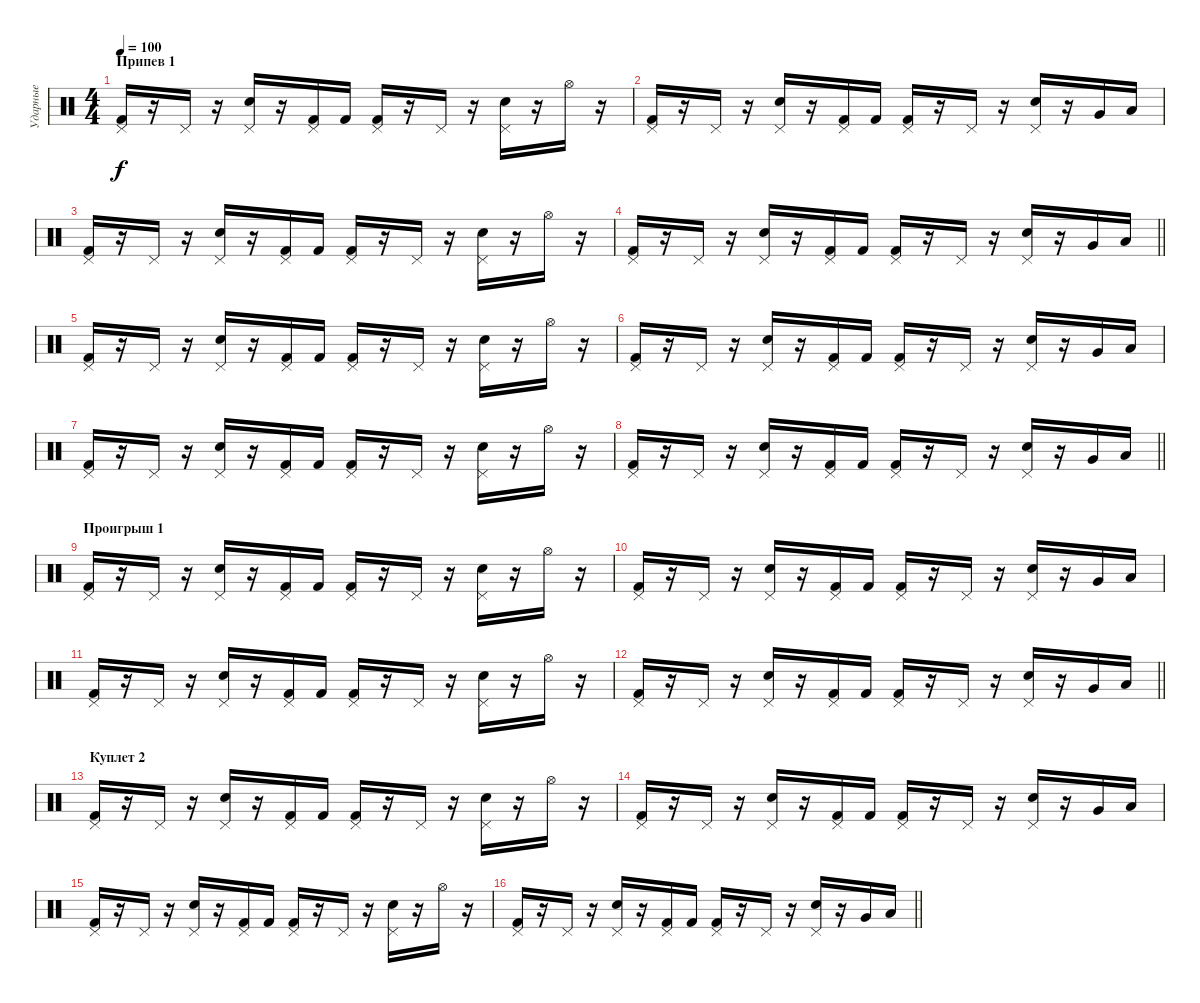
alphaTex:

\track ("Ударные" "Ударные") {instrument percussion}
\staff {score}
\articulation defaults
\ts (4 4)
\section ("" "Припев 1")
\tempo 100
\clef neutral
\ks c
("Pedal Hi-Hat (hit)" "Kick (hit) 2").16{dy f} r.16 "Pedal Hi-Hat (hit)".16 r.16 ("Pedal Hi-Hat (hit)" "Snare (hit) 2").16 r.16 ("Pedal Hi-Hat (hit)" "Kick (hit) 2").16 "Kick (hit) 2".16 ("Pedal Hi-Hat (hit)" "Kick (hit) 2").16 r.16 "Pedal Hi-Hat (hit)".16 r.16 ("Pedal Hi-Hat (hit)" "Snare (hit) 2").16 r.16 "Hi-Hat (open)".16 r.16 |
("Pedal Hi-Hat (hit)" "Kick (hit) 2").16 r.16 "Pedal Hi-Hat (hit)".16 r.16 ("Pedal Hi-Hat (hit)" "Snare (hit) 2").16 r.16 ("Pedal Hi-Hat (hit)" "Kick (hit) 2").16 "Kick (hit) 2".16 ("Pedal Hi-Hat (hit)" "Kick (hit) 2").16 r.16 "Pedal Hi-Hat (hit)".16 r.16 ("Pedal Hi-Hat (hit)" "Snare (hit) 2").16 r.16 "Very Low Tom (hit)".16 "Low Floor Tom (hit)".16 |
("Pedal Hi-Hat (hit)" "Kick (hit) 2").16 r.16 "Pedal Hi-Hat (hit)".16 r.16 ("Pedal Hi-Hat (hit)" "Snare (hit) 2").16 r.16 ("Pedal Hi-Hat (hit)" "Kick (hit) 2").16 "Kick (hit) 2".16 ("Pedal Hi-Hat (hit)" "Kick (hit) 2").16 r.16 "Pedal Hi-Hat (hit)".16 r.16 ("Pedal Hi-Hat (hit)" "Snare (hit) 2").16 r.16 "Hi-Hat (open)".16 r.16 |
\barLineRight lightlight
("Pedal Hi-Hat (hit)" "Kick (hit) 2").16 r.16 "Pedal Hi-Hat (hit)".16 r.16 ("Pedal Hi-Hat (hit)" "Snare (hit) 2").16 r.16 ("Pedal Hi-Hat (hit)" "Kick (hit) 2").16 "Kick (hit) 2".16 ("Pedal Hi-Hat (hit)" "Kick (hit) 2").16 r.16 "Pedal Hi-Hat (hit)".16 r.16 ("Pedal Hi-Hat (hit)" "Snare (hit) 2").16 r.16 "Very Low Tom (hit)".16 "Low Floor Tom (hit)".16 |
("Pedal Hi-Hat (hit)" "Kick (hit) 2").16 r.16 "Pedal Hi-Hat (hit)".16 r.16 ("Pedal Hi-Hat (hit)" "Snare (hit) 2").16 r.16 ("Pedal Hi-Hat (hit)" "Kick (hit) 2").16 "Kick (hit) 2".16 ("Pedal Hi-Hat (hit)" "Kick (hit) 2").16 r.16 "Pedal Hi-Hat (hit)".16 r.16 ("Pedal Hi-Hat (hit)" "Snare (hit) 2").16 r.16 "Hi-Hat (open)".16 r.16 |
("Pedal Hi-Hat (hit)" "Kick (hit) 2").16 r.16 "Pedal Hi-Hat (hit)".16 r.16 ("Pedal Hi-Hat (hit)" "Snare (hit) 2").16 r.16 ("Pedal Hi-Hat (hit)" "Kick (hit) 2").16 "Kick (hit) 2".16 ("Pedal Hi-Hat (hit)" "Kick (hit) 2").16 r.16 "Pedal Hi-Hat (hit)".16 r.16 ("Pedal Hi-Hat (hit)" "Snare (hit) 2").16 r.16 "Very Low Tom (hit)".16 "Low Floor Tom (hit)".16 |
("Pedal Hi-Hat (hit)" "Kick (hit) 2").16 r.16 "Pedal Hi-Hat (hit)".16 r.16 ("Pedal Hi-Hat (hit)" "Snare (hit) 2").16 r.16 ("Pedal Hi-Hat (hit)" "Kick (hit) 2").16 "Kick (hit) 2".16 ("Pedal Hi-Hat (hit)" "Kick (hit) 2").16 r.16 "Pedal Hi-Hat (hit)".16 r.16 ("Pedal Hi-Hat (hit)" "Snare (hit) 2").16 r.16 "Hi-Hat (open)".16 r.16 |
\barLineRight lightlight
("Pedal Hi-Hat (hit)" "Kick (hit) 2").16 r.16 "Pedal Hi-Hat (hit)".16 r.16 ("Pedal Hi-Hat (hit)" "Snare (hit) 2").16 r.16 ("Pedal Hi-Hat (hit)" "Kick (hit) 2").16 "Kick (hit) 2".16 ("Pedal Hi-Hat (hit)" "Kick (hit) 2").16 r.16 "Pedal Hi-Hat (hit)".16 r.16 ("Pedal Hi-Hat (hit)" "Snare (hit) 2").16 r.16 "Very Low Tom (hit)".16 "Low Floor Tom (hit)".16 |
\section ("" "Проигрыш 1")
("Pedal Hi-Hat (hit)" "Kick (hit) 2").16 r.16 "Pedal Hi-Hat (hit)".16 r.16 ("Pedal Hi-Hat (hit)" "Snare (hit) 2").16 r.16 ("Pedal Hi-Hat (hit)" "Kick (hit) 2").16 "Kick (hit) 2".16 ("Pedal Hi-Hat (hit)" "Kick (hit) 2").16 r.16 "Pedal Hi-Hat (hit)".16 r.16 ("Pedal Hi-Hat (hit)" "Snare (hit) 2").16 r.16 "Hi-Hat (open)".16 r.16 |
("Pedal Hi-Hat (hit)" "Kick (hit) 2").16 r.16 "Pedal Hi-Hat (hit)".16 r.16 ("Pedal Hi-Hat (hit)" "Snare (hit) 2").16 r.16 ("Pedal Hi-Hat (hit)" "Kick (hit) 2").16 "Kick (hit) 2".16 ("Pedal Hi-Hat (hit)" "Kick (hit) 2").16 r.16 "Pedal Hi-Hat (hit)".16 r.16 ("Pedal Hi-Hat (hit)" "Snare (hit) 2").16 r.16 "Very Low Tom (hit)".16 "Low Floor Tom (hit)".16 |
("Pedal Hi-Hat (hit)" "Kick (hit) 2").16 r.16 "Pedal Hi-Hat (hit)".16 r.16 ("Pedal Hi-Hat (hit)" "Snare (hit) 2").16 r.16 ("Pedal Hi-Hat (hit)" "Kick (hit) 2").16 "Kick (hit) 2".16 ("Pedal Hi-Hat (hit)" "Kick (hit) 2").16 r.16 "Pedal Hi-Hat (hit)".16 r.16 ("Pedal Hi-Hat (hit)" "Snare (hit) 2").16 r.16 "Hi-Hat (open)".16 r.16 |
\barLineRight lightlight
("Pedal Hi-Hat (hit)" "Kick (hit) 2").16 r.16 "Pedal Hi-Hat (hit)".16 r.16 ("Pedal Hi-Hat (hit)" "Snare (hit) 2").16 r.16 ("Pedal Hi-Hat (hit)" "Kick (hit) 2").16 "Kick (hit) 2".16 ("Pedal Hi-Hat (hit)" "Kick (hit) 2").16 r.16 "Pedal Hi-Hat (hit)".16 r.16 ("Pedal Hi-Hat (hit)" "Snare (hit) 2").16 r.16 "Very Low Tom (hit)".16 "Low Floor Tom (hit)".16 |
\section ("" "Куплет 2")
("Pedal Hi-Hat (hit)" "Kick (hit) 2").16 r.16 "Pedal Hi-Hat (hit)".16 r.16 ("Pedal Hi-Hat (hit)" "Snare (hit) 2").16 r.16 ("Pedal Hi-Hat (hit)" "Kick (hit) 2").16 "Kick (hit) 2".16 ("Pedal Hi-Hat (hit)" "Kick (hit) 2").16 r.16 "Pedal Hi-Hat (hit)".16 r.16 ("Pedal Hi-Hat (hit)" "Snare (hit) 2").16 r.16 "Hi-Hat (open)".16 r.16 |
("Pedal Hi-Hat (hit)" "Kick (hit) 2").16 r.16 "Pedal Hi-Hat (hit)".16 r.16 ("Pedal Hi-Hat (hit)" "Snare (hit) 2").16 r.16 ("Pedal Hi-Hat (hit)" "Kick (hit) 2").16 "Kick (hit) 2".16 ("Pedal Hi-Hat (hit)" "Kick (hit) 2").16 r.16 "Pedal Hi-Hat (hit)".16 r.16 ("Pedal Hi-Hat (hit)" "Snare (hit) 2").16 r.16 "Very Low Tom (hit)".16 "Low Floor Tom (hit)".16 |
("Pedal Hi-Hat (hit)" "Kick (hit) 2").16 r.16 "Pedal Hi-Hat (hit)".16 r.16 ("Pedal Hi-Hat (hit)" "Snare (hit) 2").16 r.16 ("Pedal Hi-Hat (hit)" "Kick (hit) 2").16 "Kick (hit) 2".16 ("Pedal Hi-Hat (hit)" "Kick (hit) 2").16 r.16 "Pedal Hi-Hat (hit)".16 r.16 ("Pedal Hi-Hat (hit)" "Snare (hit) 2").16 r.16 "Hi-Hat (open)".16 r.16 |
\barLineRight lightlight
("Pedal Hi-Hat (hit)" "Kick (hit) 2").16 r.16 "Pedal Hi-Hat (hit)".16 r.16 ("Pedal Hi-Hat (hit)" "Snare (hit) 2").16 r.16 ("Pedal Hi-Hat (hit)" "Kick (hit) 2").16 "Kick (hit) 2".16 ("Pedal Hi-Hat (hit)" "Kick (hit) 2").16 r.16 "Pedal Hi-Hat (hit)".16 r.16 ("Pedal Hi-Hat (hit)" "Snare (hit) 2").16 r.16 "Very Low Tom (hit)".16 "Low Floor Tom (hit)".16
